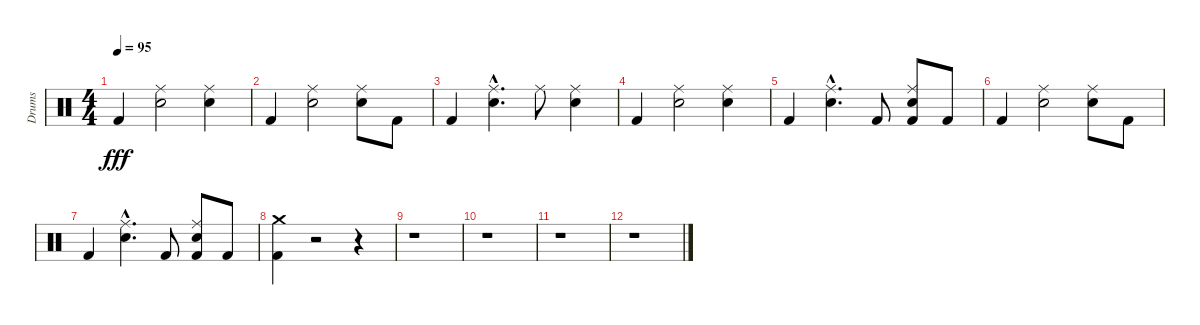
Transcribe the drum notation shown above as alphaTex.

\track ("Drums" "Drums") {instrument percussion}
\staff {score}
\articulation defaults
\ts (4 4)
\tempo 95
\clef neutral
\ks c "Kick (hit) 2".4{dy fff}
("Ride (middle)" "Snare (hit) 2").2 ("Ride (middle)" "Snare (hit) 2").4 |
"Kick (hit) 2".4 ("Ride (middle)" "Snare (hit) 2").2 ("Ride (middle)" "Snare (hit) 2").8 "Kick (hit) 2".8 |
"Kick (hit) 2".4 ("Ride (middle)"{hac} "Snare (hit) 2"{hac}).4{d} "Ride (middle)".8 ("Ride (middle)" "Snare (hit) 2").4 |
"Kick (hit) 2".4 ("Ride (middle)" "Snare (hit) 2").2 ("Ride (middle)" "Snare (hit) 2").4 |
"Kick (hit) 2".4 ("Ride (middle)"{hac} "Snare (hit) 2"{hac}).4{d} "Kick (hit) 2".8 ("Ride (middle)" "Snare (hit) 2" "Kick (hit) 2").8 "Kick (hit) 2".8 |
"Kick (hit) 2".4 ("Ride (middle)" "Snare (hit) 2").2 ("Ride (middle)" "Snare (hit) 2").8 "Kick (hit) 2".8 |
"Kick (hit) 2".4 ("Ride (middle)"{hac} "Snare (hit) 2"{hac}).4{d} "Kick (hit) 2".8 ("Ride (middle)" "Snare (hit) 2" "Kick (hit) 2").8 "Kick (hit) 2".8 |
("Crash medium (hit)" "Kick (hit) 2").4 r.2 r.4 |
r.1 |
r.1 |
r.1 |
r.1
